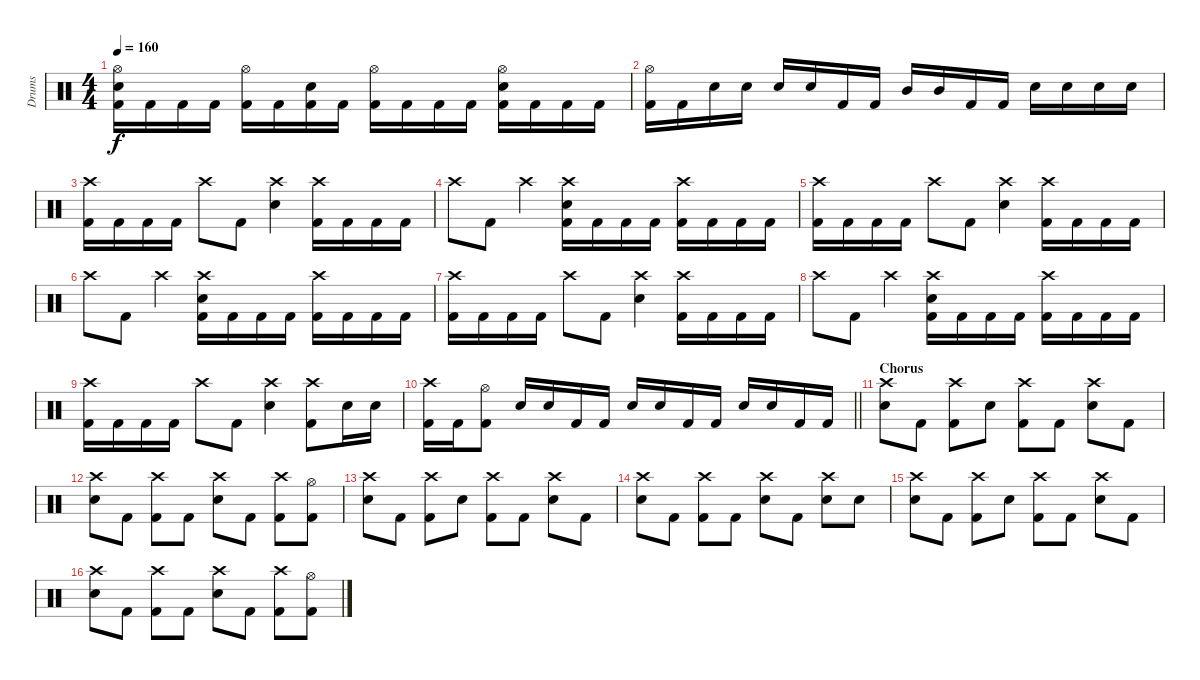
\track ("Drums" "Drums") {instrument percussion}
\staff {score}
\articulation defaults
\ts (4 4)
\tempo 160
\clef neutral
\ks c
("Hi-Hat (open)" "Electric Snare (hit)" "Kick (hit) 2").16{dy f} "Kick (hit) 2".16 "Kick (hit) 2".16 "Kick (hit) 2".16 ("Hi-Hat (open)" "Kick (hit) 2").16 "Kick (hit) 2".16 ("Electric Snare (hit)" "Kick (hit) 2").16 "Kick (hit) 2".16 ("Hi-Hat (open)" "Kick (hit) 2").16 "Kick (hit) 2".16 "Kick (hit) 2".16 "Kick (hit) 2".16 ("Hi-Hat (open)" "Electric Snare (hit)" "Kick (hit) 2").16 "Kick (hit) 2".16 "Kick (hit) 2".16 "Kick (hit) 2".16 |
("Hi-Hat (open)" "Kick (hit) 2").16 "Kick (hit) 2".16 "Electric Snare (hit)".16 "Electric Snare (hit)".16 "Electric Snare (hit)".16 "Electric Snare (hit)".16 "Kick (hit) 2".16 "Kick (hit) 2".16 "Mid Tom (hit)".16 "Mid Tom (hit)".16 "Kick (hit) 2".16 "Kick (hit) 2".16 "Electric Snare (hit)".16 "Electric Snare (hit)".16 "Electric Snare (hit)".16 "Electric Snare (hit)".16 |
("Crash high (hit)" "Kick (hit) 2").16 "Kick (hit) 2".16 "Kick (hit) 2".16 "Kick (hit) 2".16 "Crash high (hit)".8 "Kick (hit) 2".8 ("Crash high (hit)" "Electric Snare (hit)").4 ("Crash high (hit)" "Kick (hit) 2").16 "Kick (hit) 2".16 "Kick (hit) 2".16 "Kick (hit) 2".16 |
"Crash high (hit)".8 "Kick (hit) 2".8 "Crash high (hit)".4 ("Crash high (hit)" "Electric Snare (hit)" "Kick (hit) 2").16 "Kick (hit) 2".16 "Kick (hit) 2".16 "Kick (hit) 2".16 ("Crash high (hit)" "Kick (hit) 2").16 "Kick (hit) 2".16 "Kick (hit) 2".16 "Kick (hit) 2".16 |
("Crash high (hit)" "Kick (hit) 2").16 "Kick (hit) 2".16 "Kick (hit) 2".16 "Kick (hit) 2".16 "Crash high (hit)".8 "Kick (hit) 2".8 ("Crash high (hit)" "Electric Snare (hit)").4 ("Crash high (hit)" "Kick (hit) 2").16 "Kick (hit) 2".16 "Kick (hit) 2".16 "Kick (hit) 2".16 |
"Crash high (hit)".8 "Kick (hit) 2".8 "Crash high (hit)".4 ("Crash high (hit)" "Electric Snare (hit)" "Kick (hit) 2").16 "Kick (hit) 2".16 "Kick (hit) 2".16 "Kick (hit) 2".16 ("Crash high (hit)" "Kick (hit) 2").16 "Kick (hit) 2".16 "Kick (hit) 2".16 "Kick (hit) 2".16 |
("Crash high (hit)" "Kick (hit) 2").16 "Kick (hit) 2".16 "Kick (hit) 2".16 "Kick (hit) 2".16 "Crash high (hit)".8 "Kick (hit) 2".8 ("Crash high (hit)" "Electric Snare (hit)").4 ("Crash high (hit)" "Kick (hit) 2").16 "Kick (hit) 2".16 "Kick (hit) 2".16 "Kick (hit) 2".16 |
"Crash high (hit)".8 "Kick (hit) 2".8 "Crash high (hit)".4 ("Crash high (hit)" "Electric Snare (hit)" "Kick (hit) 2").16 "Kick (hit) 2".16 "Kick (hit) 2".16 "Kick (hit) 2".16 ("Crash high (hit)" "Kick (hit) 2").16 "Kick (hit) 2".16 "Kick (hit) 2".16 "Kick (hit) 2".16 |
("Crash high (hit)" "Kick (hit) 2").16 "Kick (hit) 2".16 "Kick (hit) 2".16 "Kick (hit) 2".16 "Crash high (hit)".8 "Kick (hit) 2".8 ("Crash high (hit)" "Electric Snare (hit)").4 ("Crash high (hit)" "Kick (hit) 2").8 "Electric Snare (hit)".16 "Electric Snare (hit)".16 |
\barLineRight lightlight
("Crash high (hit)" "Kick (hit) 2").16 "Kick (hit) 2".16 ("Hi-Hat (open)" "Kick (hit) 2").8 "Electric Snare (hit)".16 "Electric Snare (hit)".16 "Kick (hit) 2".16 "Kick (hit) 2".16 "Electric Snare (hit)".16 "Electric Snare (hit)".16 "Kick (hit) 2".16 "Kick (hit) 2".16 "Electric Snare (hit)".16 "Electric Snare (hit)".16 "Kick (hit) 2".16 "Kick (hit) 2".16 |
\section ("" "Chorus")
("Crash high (hit)" "Electric Snare (hit)").8 "Kick (hit) 2".8 ("Crash high (hit)" "Kick (hit) 2").8 "Electric Snare (hit)".8 ("Crash high (hit)" "Kick (hit) 2").8 "Kick (hit) 2".8 ("Crash high (hit)" "Electric Snare (hit)").8 "Kick (hit) 2".8 |
("Crash high (hit)" "Electric Snare (hit)").8 "Kick (hit) 2".8 ("Crash high (hit)" "Kick (hit) 2").8 "Kick (hit) 2".8 ("Crash high (hit)" "Electric Snare (hit)").8 "Kick (hit) 2".8 ("Crash high (hit)" "Kick (hit) 2").8 ("Hi-Hat (open)" "Kick (hit) 2").8 |
("Crash high (hit)" "Electric Snare (hit)").8 "Kick (hit) 2".8 ("Crash high (hit)" "Kick (hit) 2").8 "Electric Snare (hit)".8 ("Crash high (hit)" "Kick (hit) 2").8 "Kick (hit) 2".8 ("Crash high (hit)" "Electric Snare (hit)").8 "Kick (hit) 2".8 |
("Crash high (hit)" "Electric Snare (hit)").8 "Kick (hit) 2".8 ("Crash high (hit)" "Kick (hit) 2").8 "Kick (hit) 2".8 ("Crash high (hit)" "Electric Snare (hit)").8 "Kick (hit) 2".8 ("Crash high (hit)" "Electric Snare (hit)").8 "Electric Snare (hit)".8 |
("Crash high (hit)" "Electric Snare (hit)").8 "Kick (hit) 2".8 ("Crash high (hit)" "Kick (hit) 2").8 "Electric Snare (hit)".8 ("Crash high (hit)" "Kick (hit) 2").8 "Kick (hit) 2".8 ("Crash high (hit)" "Electric Snare (hit)").8 "Kick (hit) 2".8 |
("Crash high (hit)" "Electric Snare (hit)").8 "Kick (hit) 2".8 ("Crash high (hit)" "Kick (hit) 2").8 "Kick (hit) 2".8 ("Crash high (hit)" "Electric Snare (hit)").8 "Kick (hit) 2".8 ("Crash high (hit)" "Kick (hit) 2").8 ("Hi-Hat (open)" "Kick (hit) 2").8
